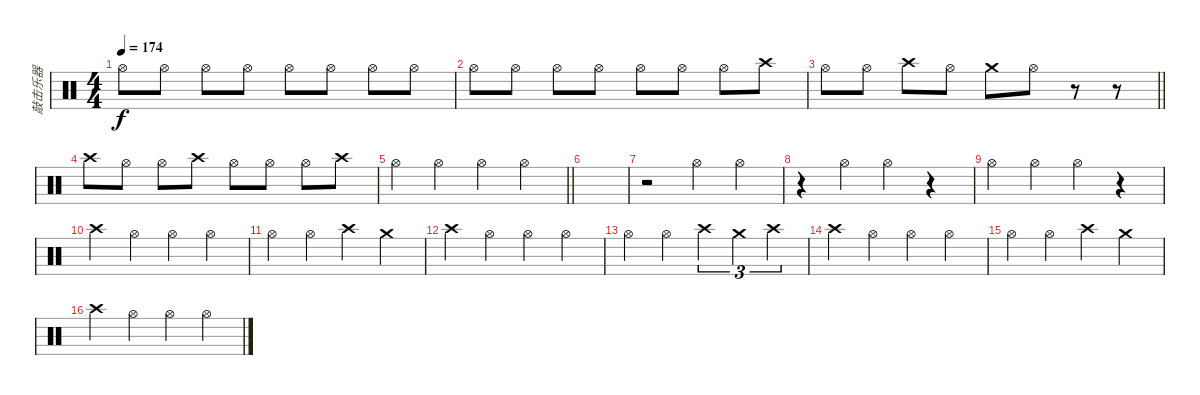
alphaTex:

\track ("敲击乐器" "敲击乐器") {instrument percussion}
\staff {score}
\articulation defaults
\ts (4 4)
\tempo 174
\clef neutral
\ks c "Hi-Hat (open)".8{dy f} "Hi-Hat (open)".8 "Hi-Hat (open)".8 "Hi-Hat (open)".8 "Hi-Hat (open)".8 "Hi-Hat (open)".8 "Hi-Hat (open)".8 "Hi-Hat (open)".8
|
"Hi-Hat (open)".8 "Hi-Hat (open)".8 "Hi-Hat (open)".8 "Hi-Hat (open)".8 "Hi-Hat (open)".8 "Hi-Hat (open)".8 "Hi-Hat (open)".8 "Crash high (hit)".8 |
\barLineRight lightlight "Hi-Hat (open)".8 "Hi-Hat (open)".8 "Crash high (hit)".8 "Hi-Hat (open)".8 "Crash medium (hit)".8 "Hi-Hat (open)".8
r.8 r.8 |
"Crash high (hit)".8 "Hi-Hat (open)".8 "Hi-Hat (open)".8 "Crash high (hit)".8 "Hi-Hat (open)".8 "Hi-Hat (open)".8 "Hi-Hat (open)".8 "Crash high (hit)".8 |
\barLineRight lightlight "Hi-Hat (open)".4 "Hi-Hat (open)".4 "Hi-Hat (open)".4 "Hi-Hat (open)".4
|
|
r.2 "Hi-Hat (open)".4 "Hi-Hat (open)".4 |
r.4 "Hi-Hat (open)".4 "Hi-Hat (open)".4 r.4 |
"Hi-Hat (open)".4 "Hi-Hat (open)".4 "Hi-Hat (open)".4 r.4 |
"Crash high (hit)".4 "Hi-Hat (open)".4 "Hi-Hat (open)".4 "Hi-Hat (open)".4 |
"Hi-Hat (open)".4 "Hi-Hat (open)".4 "Crash high (hit)".4 "Crash medium (hit)".4 |
"Crash high (hit)".4 "Hi-Hat (open)".4 "Hi-Hat (open)".4 "Hi-Hat (open)".4 |
"Hi-Hat (open)".4 "Hi-Hat (open)".4 "Crash high (hit)".4{tu (3 2)} "Crash medium (hit)".4{tu (3 2)} "Crash high (hit)".4{tu (3 2)} |
"Crash high (hit)".4 "Hi-Hat (open)".4 "Hi-Hat (open)".4 "Hi-Hat (open)".4 |
"Hi-Hat (open)".4 "Hi-Hat (open)".4 "Crash high (hit)".4 "Crash medium (hit)".4 |
"Crash high (hit)".4 "Hi-Hat (open)".4 "Hi-Hat (open)".4 "Hi-Hat (open)".4
